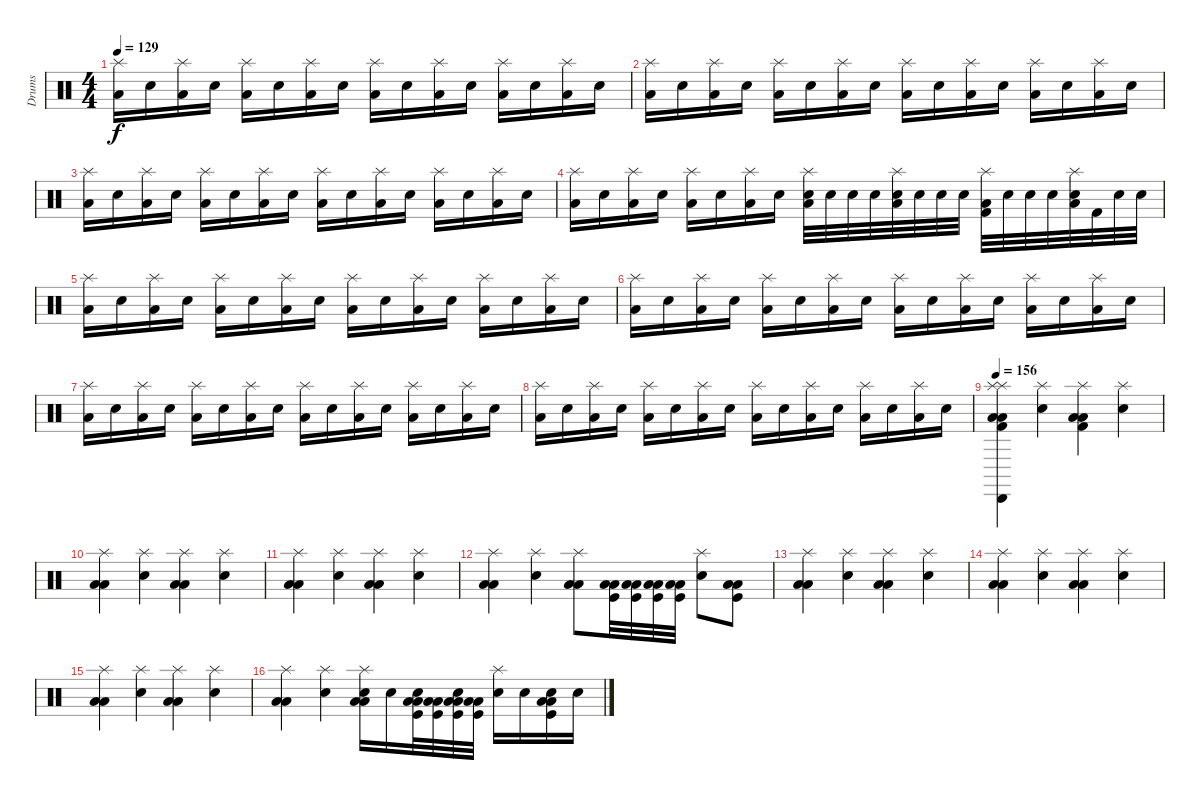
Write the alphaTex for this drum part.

\track ("Drums" "Drums") {instrument percussion}
\staff {score}
\articulation defaults
\ts (4 4)
\tempo 129
\clef neutral
\ks c
("Splash (hit)" "Low Tom (hit)").16{dy f} "Electric Snare (hit)".16 ("Splash (hit)" "Low Tom (hit)").16 "Electric Snare (hit)".16 ("Splash (hit)" "Low Tom (hit)").16 "Electric Snare (hit)".16 ("Splash (hit)" "Low Tom (hit)").16 "Electric Snare (hit)".16 ("Splash (hit)" "Low Tom (hit)").16 "Electric Snare (hit)".16 ("Splash (hit)" "Low Tom (hit)").16 "Electric Snare (hit)".16 ("Splash (hit)" "Low Tom (hit)").16 "Electric Snare (hit)".16 ("Splash (hit)" "Low Tom (hit)").16 "Electric Snare (hit)".16 |
("Splash (hit)" "Low Tom (hit)").16 "Electric Snare (hit)".16 ("Splash (hit)" "Low Tom (hit)").16 "Electric Snare (hit)".16 ("Splash (hit)" "Low Tom (hit)").16 "Electric Snare (hit)".16 ("Splash (hit)" "Low Tom (hit)").16 "Electric Snare (hit)".16 ("Splash (hit)" "Low Tom (hit)").16 "Electric Snare (hit)".16 ("Splash (hit)" "Low Tom (hit)").16 "Electric Snare (hit)".16 ("Splash (hit)" "Low Tom (hit)").16 "Electric Snare (hit)".16 ("Splash (hit)" "Low Tom (hit)").16 "Electric Snare (hit)".16 |
("Splash (hit)" "Low Tom (hit)").16 "Electric Snare (hit)".16 ("Splash (hit)" "Low Tom (hit)").16 "Electric Snare (hit)".16 ("Splash (hit)" "Low Tom (hit)").16 "Electric Snare (hit)".16 ("Splash (hit)" "Low Tom (hit)").16 "Electric Snare (hit)".16 ("Splash (hit)" "Low Tom (hit)").16 "Electric Snare (hit)".16 ("Splash (hit)" "Low Tom (hit)").16 "Electric Snare (hit)".16 ("Splash (hit)" "Low Tom (hit)").16 "Electric Snare (hit)".16 ("Splash (hit)" "Low Tom (hit)").16 "Electric Snare (hit)".16 |
("Splash (hit)" "Low Tom (hit)").16 "Electric Snare (hit)".16 ("Splash (hit)" "Low Tom (hit)").16 "Electric Snare (hit)".16 ("Splash (hit)" "Low Tom (hit)").16 "Electric Snare (hit)".16 ("Splash (hit)" "Low Tom (hit)").16 "Electric Snare (hit)".16 ("Electric Snare (hit)" "Splash (hit)" "Low Tom (hit)").32 "Electric Snare (hit)".32 "Electric Snare (hit)".32 "Electric Snare (hit)".32 ("Electric Snare (hit)" "Splash (hit)" "Low Tom (hit)").32 "Electric Snare (hit)".32 "Electric Snare (hit)".32 "Electric Snare (hit)".32 ("Kick (hit) 2" "Splash (hit)" "Low Tom (hit)").32 "Electric Snare (hit)".32 "Electric Snare (hit)".32 "Electric Snare (hit)".32 ("Electric Snare (hit)" "Splash (hit)" "Low Tom (hit)").32 "Kick (hit) 2".32 "Electric Snare (hit)".32 "Electric Snare (hit)".32 |
("Splash (hit)" "Low Tom (hit)").16 "Electric Snare (hit)".16 ("Splash (hit)" "Low Tom (hit)").16 "Electric Snare (hit)".16 ("Splash (hit)" "Low Tom (hit)").16 "Electric Snare (hit)".16 ("Splash (hit)" "Low Tom (hit)").16 "Electric Snare (hit)".16 ("Splash (hit)" "Low Tom (hit)").16 "Electric Snare (hit)".16 ("Splash (hit)" "Low Tom (hit)").16 "Electric Snare (hit)".16 ("Splash (hit)" "Low Tom (hit)").16 "Electric Snare (hit)".16 ("Splash (hit)" "Low Tom (hit)").16 "Electric Snare (hit)".16 |
("Splash (hit)" "Low Tom (hit)").16 "Electric Snare (hit)".16 ("Splash (hit)" "Low Tom (hit)").16 "Electric Snare (hit)".16 ("Splash (hit)" "Low Tom (hit)").16 "Electric Snare (hit)".16 ("Splash (hit)" "Low Tom (hit)").16 "Electric Snare (hit)".16 ("Splash (hit)" "Low Tom (hit)").16 "Electric Snare (hit)".16 ("Splash (hit)" "Low Tom (hit)").16 "Electric Snare (hit)".16 ("Splash (hit)" "Low Tom (hit)").16 "Electric Snare (hit)".16 ("Splash (hit)" "Low Tom (hit)").16 "Electric Snare (hit)".16 |
("Splash (hit)" "Low Tom (hit)").16 "Electric Snare (hit)".16 ("Splash (hit)" "Low Tom (hit)").16 "Electric Snare (hit)".16 ("Splash (hit)" "Low Tom (hit)").16 "Electric Snare (hit)".16 ("Splash (hit)" "Low Tom (hit)").16 "Electric Snare (hit)".16 ("Splash (hit)" "Low Tom (hit)").16 "Electric Snare (hit)".16 ("Splash (hit)" "Low Tom (hit)").16 "Electric Snare (hit)".16 ("Splash (hit)" "Low Tom (hit)").16 "Electric Snare (hit)".16 ("Splash (hit)" "Low Tom (hit)").16 "Electric Snare (hit)".16 |
("Splash (hit)" "Low Tom (hit)").16 "Electric Snare (hit)".16 ("Splash (hit)" "Low Tom (hit)").16 "Electric Snare (hit)".16 ("Splash (hit)" "Low Tom (hit)").16 "Electric Snare (hit)".16 ("Splash (hit)" "Low Tom (hit)").16 "Electric Snare (hit)".16 ("Splash (hit)" "Low Tom (hit)").16 "Electric Snare (hit)".16 ("Splash (hit)" "Low Tom (hit)").16 "Electric Snare (hit)".16 ("Splash (hit)" "Low Tom (hit)").16 "Electric Snare (hit)".16 ("Splash (hit)" "Low Tom (hit)").16 "Electric Snare (hit)".16 |
\tempo 156
("Cabasa (hit)" "Low Tom (hit)" "Low Floor Tom (hit)" "Kick (hit) 2" "Splash (hit)" "Splash (hit)").4 ("Electric Snare (hit)" "Splash (hit)").4 ("Kick (hit) 2" "Low Tom (hit)" "Low Floor Tom (hit)" "Splash (hit)").4 ("Electric Snare (hit)" "Splash (hit)").4 |
("Low Tom (hit)" "Low Floor Tom (hit)" "Splash (hit)").4 ("Electric Snare (hit)" "Splash (hit)").4 ("Low Floor Tom (hit)" "Low Tom (hit)" "Splash (hit)").4 ("Electric Snare (hit)" "Splash (hit)").4 |
("Low Floor Tom (hit)" "Low Tom (hit)" "Splash (hit)").4 ("Electric Snare (hit)" "Splash (hit)").4 ("Low Tom (hit)" "Low Floor Tom (hit)" "Splash (hit)").4 ("Electric Snare (hit)" "Splash (hit)").4 |
("Low Tom (hit)" "Low Floor Tom (hit)" "Splash (hit)").4 ("Electric Snare (hit)" "Splash (hit)").4 ("Low Floor Tom (hit)" "Low Tom (hit)" "Splash (hit)").8 ("Kick (hit)" "Low Tom (hit)" "Low Floor Tom (hit)").32 ("Kick (hit)" "Low Floor Tom (hit)" "Low Tom (hit)").32 ("Kick (hit)" "Low Floor Tom (hit)" "Low Tom (hit)").32 ("Kick (hit)" "Low Tom (hit)" "Low Floor Tom (hit)").32 ("Electric Snare (hit)" "Splash (hit)").8 ("Kick (hit)" "Low Tom (hit)" "Low Floor Tom (hit)").8 |
("Low Floor Tom (hit)" "Low Tom (hit)" "Splash (hit)").4 ("Electric Snare (hit)" "Splash (hit)").4 ("Low Tom (hit)" "Low Floor Tom (hit)" "Splash (hit)").4 ("Electric Snare (hit)" "Splash (hit)").4 |
("Low Tom (hit)" "Low Floor Tom (hit)" "Splash (hit)").4 ("Electric Snare (hit)" "Splash (hit)").4 ("Low Floor Tom (hit)" "Low Tom (hit)" "Splash (hit)").4 ("Electric Snare (hit)" "Splash (hit)").4 |
("Low Floor Tom (hit)" "Low Tom (hit)" "Splash (hit)").4 ("Electric Snare (hit)" "Splash (hit)").4 ("Low Tom (hit)" "Low Floor Tom (hit)" "Splash (hit)").4 ("Electric Snare (hit)" "Splash (hit)").4 |
("Low Tom (hit)" "Low Floor Tom (hit)" "Splash (hit)").4 ("Electric Snare (hit)" "Splash (hit)").4 ("Snare (hit) 2" "Low Floor Tom (hit)" "Low Tom (hit)" "Splash (hit)").16 "Electric Snare (hit)".16 ("Electric Snare (hit)" "Kick (hit)" "Low Tom (hit)" "Low Floor Tom (hit)").32 ("Kick (hit)" "Low Floor Tom (hit)" "Low Tom (hit)").32 ("Electric Snare (hit)" "Kick (hit)" "Low Floor Tom (hit)" "Low Tom (hit)").32 ("Kick (hit)" "Low Tom (hit)" "Low Floor Tom (hit)").32 ("Electric Snare (hit)" "Splash (hit)").16 "Electric Snare (hit)".16 ("Electric Snare (hit)" "Kick (hit)" "Low Tom (hit)" "Low Floor Tom (hit)").16 "Electric Snare (hit)".16
